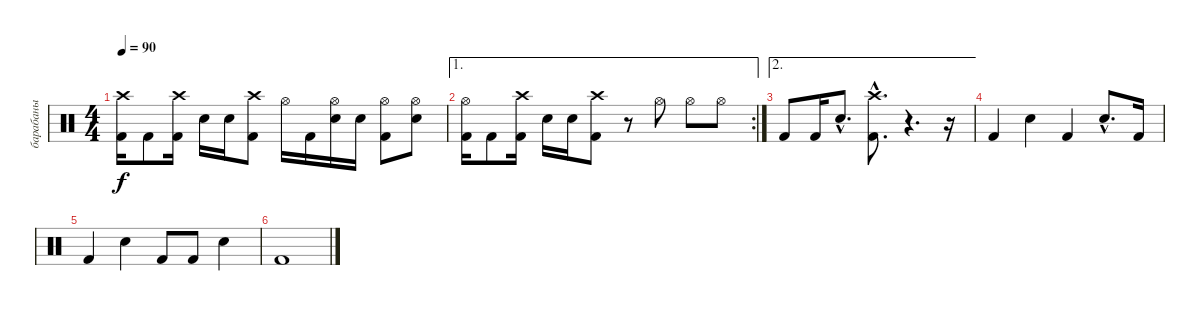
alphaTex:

\track ("барабаны" "барабаны") {instrument percussion}
\staff {score}
\articulation defaults
\ts (4 4)
\tempo 90
\clef neutral
\ks c
("Crash high (hit)" "Kick (hit) 2").16{dy f} "Kick (hit) 2".8 ("Crash high (hit)" "Kick (hit) 2").16 "Snare (hit) 2".16 "Snare (hit) 2".16 ("Crash high (hit)" "Kick (hit) 2").8 "Hi-Hat (open)".16 "Kick (hit) 2".16 ("Hi-Hat (open)" "Snare (hit) 2").16 "Snare (hit) 2".16 ("Hi-Hat (open)" "Kick (hit) 2").8 ("Hi-Hat (open)" "Snare (hit) 2").8 |
\ae 1
\rc 2
("Hi-Hat (open)" "Kick (hit) 2").16 "Kick (hit) 2".8 ("Crash high (hit)" "Kick (hit) 2").16 "Snare (hit) 2".16 "Snare (hit) 2".16 ("Crash high (hit)" "Kick (hit) 2").8 r.8 "Hi-Hat (open)".8 "Hi-Hat (open)".8 "Hi-Hat (open)".8 |
\ae 2 "Kick (hit) 2".8 "Kick (hit) 2".16 "Snare (hit) 2"{hac}.8{d}
("Crash high (hit)"{hac} "Kick (hit) 2"{hac}).8{d} r.4{d} r.16 |
"Kick (hit) 2".4 "Snare (hit) 2".4 "Kick (hit) 2".4 "Snare (hit) 2"{hac}.8{d} "Kick (hit) 2".16 |
"Kick (hit) 2".4 "Snare (hit) 2".4 "Kick (hit) 2".8 "Kick (hit) 2".8 "Snare (hit) 2".4 |
"Kick (hit) 2".1
